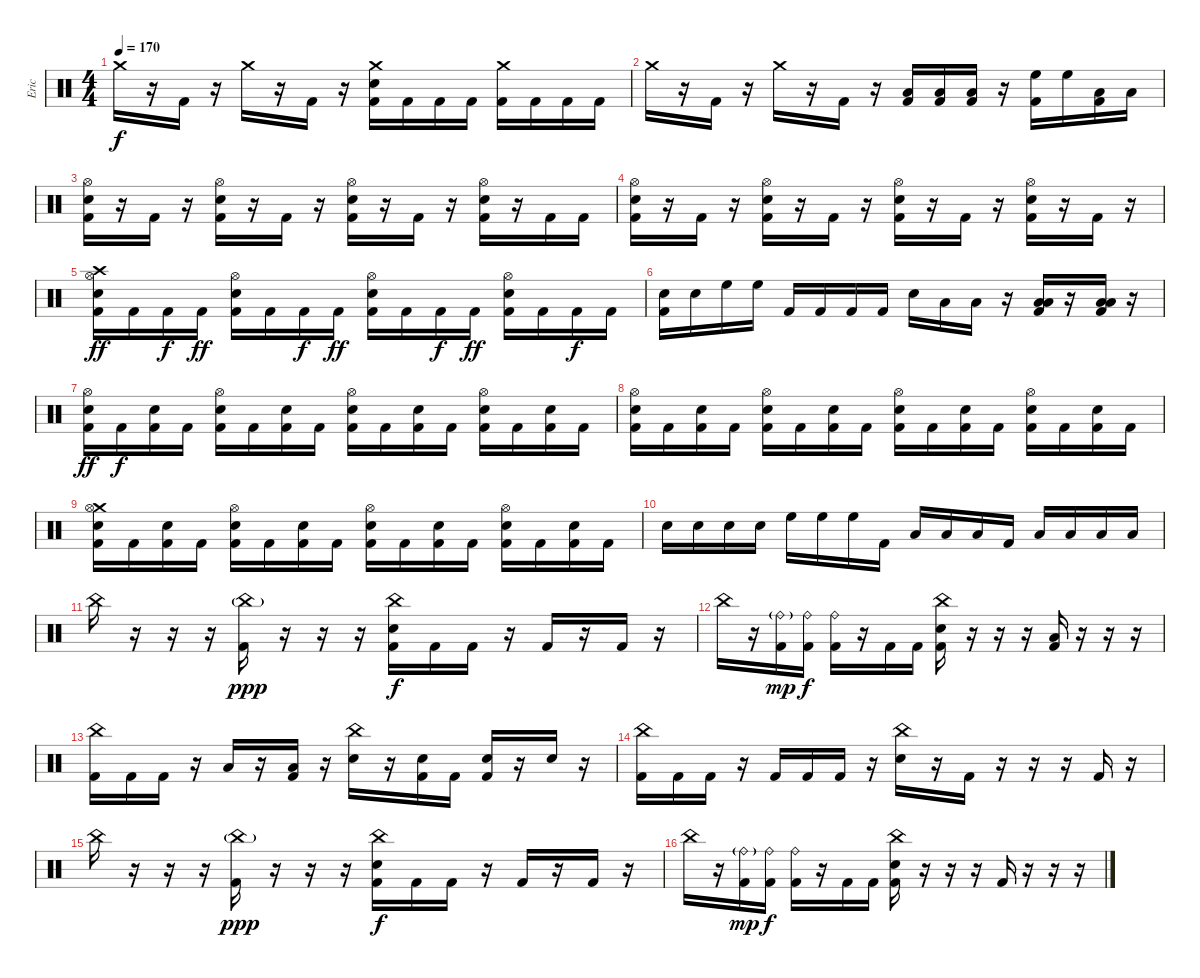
\track ("Eric" "Eric") {instrument percussion}
\staff {score}
\articulation defaults
\ts (4 4)
\tempo 170
\clef neutral
\ks c "Crash medium (hit)".16{dy f}
r.16 "Kick (hit) 2".16 r.16 "Crash medium (hit)".16 r.16 "Kick (hit) 2".16 r.16 ("Crash medium (hit)" "Electric Snare (hit)" "Kick (hit) 2").16 "Kick (hit) 2".16 "Kick (hit) 2".16 "Kick (hit) 2".16 ("Crash medium (hit)" "Kick (hit) 2").16 "Kick (hit) 2".16 "Kick (hit) 2".16 "Kick (hit) 2".16 |
"Crash medium (hit)".16 r.16 "Kick (hit) 2".16 r.16 "Crash medium (hit)".16 r.16 "Kick (hit) 2".16 r.16 ("Low Floor Tom (hit)" "Kick (hit) 2").16 ("Low Floor Tom (hit)" "Kick (hit) 2").16 ("Low Floor Tom (hit)" "Kick (hit) 2").16 r.16 ("High Floor Tom (hit)" "Kick (hit) 2").16 "High Floor Tom (hit)".16 ("Low Tom (hit)" "Kick (hit) 2").16 "Low Tom (hit)".16 |
("Hi-Hat (open)" "Electric Snare (hit)" "Kick (hit) 2").16 r.16 "Kick (hit) 2".16 r.16 ("Hi-Hat (open)" "Electric Snare (hit)" "Kick (hit) 2").16 r.16 "Kick (hit) 2".16 r.16 ("Hi-Hat (open)" "Electric Snare (hit)" "Kick (hit) 2").16 r.16 "Kick (hit) 2".16 r.16 ("Hi-Hat (open)" "Electric Snare (hit)" "Kick (hit) 2").16 r.16 "Kick (hit) 2".16 "Kick (hit) 2".16 |
("Hi-Hat (open)" "Electric Snare (hit)" "Kick (hit) 2").16 r.16 "Kick (hit) 2".16 r.16 ("Hi-Hat (open)" "Electric Snare (hit)" "Kick (hit) 2").16 r.16 "Kick (hit) 2".16 r.16 ("Hi-Hat (open)" "Electric Snare (hit)" "Kick (hit) 2").16 r.16 "Kick (hit) 2".16 r.16 ("Hi-Hat (open)" "Electric Snare (hit)" "Kick (hit) 2").16 r.16 "Kick (hit) 2".16 r.16 |
("Crash high (hit)" "Hi-Hat (open)" "Electric Snare (hit)" "Kick (hit) 2").16{dy ff} "Kick (hit) 2".16 "Kick (hit) 2".16{dy f} "Kick (hit) 2".16{dy ff} ("Hi-Hat (open)" "Electric Snare (hit)" "Kick (hit) 2").16 "Kick (hit) 2".16 "Kick (hit) 2".16{dy f} "Kick (hit) 2".16{dy ff} ("Hi-Hat (open)" "Electric Snare (hit)" "Kick (hit) 2").16 "Kick (hit) 2".16 "Kick (hit) 2".16{dy f} "Kick (hit) 2".16{dy ff} ("Hi-Hat (open)" "Electric Snare (hit)" "Kick (hit) 2").16 "Kick (hit) 2".16 "Kick (hit) 2".16{dy f} "Kick (hit) 2".16 |
("Electric Snare (hit)" "Kick (hit) 2").16 "Electric Snare (hit)".16 "High Floor Tom (hit)".16 "High Floor Tom (hit)".16 "Kick (hit) 2".16 "Kick (hit) 2".16 "Kick (hit) 2".16 "Kick (hit) 2".16 "Electric Snare (hit)".16 "Low Tom (hit)".16 "Low Floor Tom (hit)".16 r.16 ("Low Tom (hit)" "Low Floor Tom (hit)" "Kick (hit) 2").16 r.16 ("Low Tom (hit)" "Low Floor Tom (hit)" "Kick (hit) 2").16 r.16 |
("Hi-Hat (open)" "Electric Snare (hit)" "Kick (hit) 2").16{dy ff} "Kick (hit) 2".16{dy f} ("Electric Snare (hit)" "Kick (hit) 2").16 "Kick (hit) 2".16 ("Hi-Hat (open)" "Electric Snare (hit)" "Kick (hit) 2").16 "Kick (hit) 2".16 ("Electric Snare (hit)" "Kick (hit) 2").16 "Kick (hit) 2".16 ("Hi-Hat (open)" "Electric Snare (hit)" "Kick (hit) 2").16 "Kick (hit) 2".16 ("Electric Snare (hit)" "Kick (hit) 2").16 "Kick (hit) 2".16 ("Hi-Hat (open)" "Electric Snare (hit)" "Kick (hit) 2").16 "Kick (hit) 2".16 ("Electric Snare (hit)" "Kick (hit) 2").16 "Kick (hit) 2".16 |
("Hi-Hat (open)" "Electric Snare (hit)" "Kick (hit) 2").16 "Kick (hit) 2".16 ("Electric Snare (hit)" "Kick (hit) 2").16 "Kick (hit) 2".16 ("Hi-Hat (open)" "Electric Snare (hit)" "Kick (hit) 2").16 "Kick (hit) 2".16 ("Electric Snare (hit)" "Kick (hit) 2").16 "Kick (hit) 2".16 ("Hi-Hat (open)" "Electric Snare (hit)" "Kick (hit) 2").16 "Kick (hit) 2".16 ("Electric Snare (hit)" "Kick (hit) 2").16 "Kick (hit) 2".16 ("Hi-Hat (open)" "Electric Snare (hit)" "Kick (hit) 2").16 "Kick (hit) 2".16 ("Electric Snare (hit)" "Kick (hit) 2").16 "Kick (hit) 2".16 |
("Crash medium (hit)" "Hi-Hat (open)" "Electric Snare (hit)" "Kick (hit) 2").16 "Kick (hit) 2".16 ("Electric Snare (hit)" "Kick (hit) 2").16 "Kick (hit) 2".16 ("Hi-Hat (open)" "Electric Snare (hit)" "Kick (hit) 2").16 "Kick (hit) 2".16 ("Electric Snare (hit)" "Kick (hit) 2").16 "Kick (hit) 2".16 ("Hi-Hat (open)" "Electric Snare (hit)" "Kick (hit) 2").16 "Kick (hit) 2".16 ("Electric Snare (hit)" "Kick (hit) 2").16 "Kick (hit) 2".16 ("Hi-Hat (open)" "Electric Snare (hit)" "Kick (hit) 2").16 "Kick (hit) 2".16 ("Electric Snare (hit)" "Kick (hit) 2").16 "Kick (hit) 2".16 |
"Electric Snare (hit)".16 "Electric Snare (hit)".16 "Electric Snare (hit)".16 "Electric Snare (hit)".16 "High Floor Tom (hit)".16 "High Floor Tom (hit)".16 "High Floor Tom (hit)".16 "Kick (hit) 2".16 "Low Tom (hit)".16 "Low Tom (hit)".16 "Low Tom (hit)".16 "Kick (hit) 2".16 "Low Floor Tom (hit)".16 "Low Floor Tom (hit)".16 "Low Floor Tom (hit)".16 "Low Floor Tom (hit)".16 |
"China (hit)".16 r.16 r.16 r.16 ("China (hit)"{g} "Kick (hit) 2").16{dy ppp} r.16 r.16 r.16 ("China (hit)" "Electric Snare (hit)" "Kick (hit) 2").16{dy f} "Kick (hit) 2".16 "Kick (hit) 2".16 r.16 "Kick (hit) 2".16 r.16 "Kick (hit) 2".16 r.16 |
"China (hit)".16 r.16 ("Ride (bell)"{g} "Kick (hit) 2").16{dy mp} ("Ride (bell)" "Kick (hit) 2").16{dy f} ("Ride (bell)" "Kick (hit) 2").16 r.16 "Kick (hit) 2".16 "Kick (hit) 2".16 ("China (hit)" "Electric Snare (hit)" "Kick (hit) 2").16 r.16 r.16 r.16 ("Low Tom (hit)" "Kick (hit) 2").16 r.16 r.16 r.16 |
("China (hit)" "Kick (hit) 2").16 "Kick (hit) 2".16 "Kick (hit) 2".16 r.16 "Low Tom (hit)".16 r.16 ("Low Floor Tom (hit)" "Kick (hit) 2").16 r.16 ("China (hit)" "Electric Snare (hit)").16 r.16 ("Electric Snare (hit)" "Kick (hit) 2").16 "Kick (hit) 2".16 ("Electric Snare (hit)" "Kick (hit) 2").16 r.16 "Electric Snare (hit)".16 r.16 |
("China (hit)" "Kick (hit) 2").16 "Kick (hit) 2".16 "Kick (hit) 2".16 r.16 "Kick (hit) 2".16 "Kick (hit) 2".16 "Kick (hit) 2".16 r.16 ("China (hit)" "Electric Snare (hit)").16 r.16 "Kick (hit) 2".16 r.16 r.16 r.16 "Kick (hit) 2".16 r.16 |
"China (hit)".16 r.16 r.16 r.16 ("China (hit)"{g} "Kick (hit) 2").16{dy ppp} r.16 r.16 r.16 ("China (hit)" "Electric Snare (hit)" "Kick (hit) 2").16{dy f} "Kick (hit) 2".16 "Kick (hit) 2".16 r.16 "Kick (hit) 2".16 r.16 "Kick (hit) 2".16 r.16 |
"China (hit)".16 r.16 ("Ride (bell)"{g} "Kick (hit) 2").16{dy mp} ("Ride (bell)" "Kick (hit) 2").16{dy f} ("Ride (bell)" "Kick (hit) 2").16 r.16 "Kick (hit) 2".16 "Kick (hit) 2".16 ("China (hit)" "Electric Snare (hit)" "Kick (hit) 2").16 r.16 r.16 r.16 "Kick (hit) 2".16 r.16 r.16 r.16
